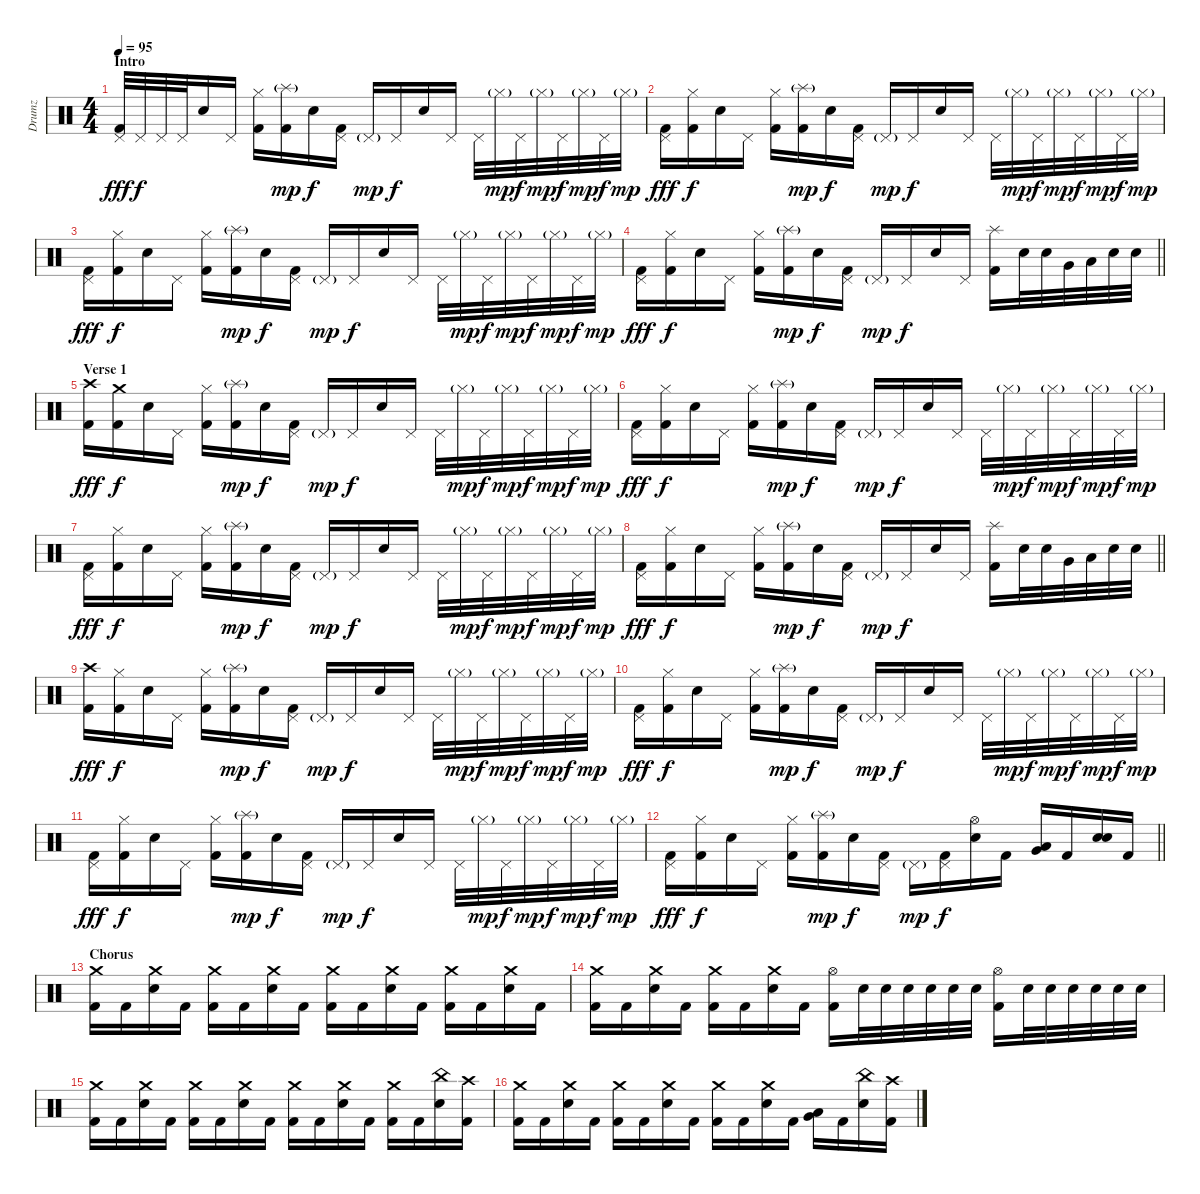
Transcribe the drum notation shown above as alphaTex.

\track ("Drumz" "Drumz") {instrument percussion}
\staff {score}
\articulation defaults
\ts (4 4)
\section ("" "Intro")
\tempo 95
\clef neutral
\ks c
("Pedal Hi-Hat (hit)" "Kick (hit) 2").32{dy fff} "Pedal Hi-Hat (hit)".32{dy f} "Pedal Hi-Hat (hit)".32 "Pedal Hi-Hat (hit)".32 "Electric Snare (hit)".16 "Pedal Hi-Hat (hit)".16 ("Hi-Hat (closed)" "Kick (hit) 2").16 ("Splash (hit)"{g} "Kick (hit) 2").16{dy mp} "Electric Snare (hit)".16{dy f} ("Pedal Hi-Hat (hit)" "Kick (hit) 2").16 "Pedal Hi-Hat (hit)"{g}.16{dy mp} "Pedal Hi-Hat (hit)".16{dy f} "Electric Snare (hit)".16 "Pedal Hi-Hat (hit)".16 "Pedal Hi-Hat (hit)".32 "Hi-Hat (closed)"{g}.32{dy mp} "Pedal Hi-Hat (hit)".32{dy f} "Hi-Hat (closed)"{g}.32{dy mp} "Pedal Hi-Hat (hit)".32{dy f} "Hi-Hat (closed)"{g}.32{dy mp} "Pedal Hi-Hat (hit)".32{dy f} "Hi-Hat (closed)"{g}.32{dy mp} |
("Pedal Hi-Hat (hit)" "Kick (hit) 2").16{dy fff} ("Hi-Hat (closed)" "Kick (hit) 2").16{dy f} "Electric Snare (hit)".16 "Pedal Hi-Hat (hit)".16 ("Hi-Hat (closed)" "Kick (hit) 2").16 ("Splash (hit)"{g} "Kick (hit) 2").16{dy mp} "Electric Snare (hit)".16{dy f} ("Pedal Hi-Hat (hit)" "Kick (hit) 2").16 "Pedal Hi-Hat (hit)"{g}.16{dy mp} "Pedal Hi-Hat (hit)".16{dy f} "Electric Snare (hit)".16 "Pedal Hi-Hat (hit)".16 "Pedal Hi-Hat (hit)".32 "Hi-Hat (closed)"{g}.32{dy mp} "Pedal Hi-Hat (hit)".32{dy f} "Hi-Hat (closed)"{g}.32{dy mp} "Pedal Hi-Hat (hit)".32{dy f} "Hi-Hat (closed)"{g}.32{dy mp} "Pedal Hi-Hat (hit)".32{dy f} "Hi-Hat (closed)"{g}.32{dy mp} |
("Pedal Hi-Hat (hit)" "Kick (hit) 2").16{dy fff} ("Hi-Hat (closed)" "Kick (hit) 2").16{dy f} "Electric Snare (hit)".16 "Pedal Hi-Hat (hit)".16 ("Hi-Hat (closed)" "Kick (hit) 2").16 ("Splash (hit)"{g} "Kick (hit) 2").16{dy mp} "Electric Snare (hit)".16{dy f} ("Pedal Hi-Hat (hit)" "Kick (hit) 2").16 "Pedal Hi-Hat (hit)"{g}.16{dy mp} "Pedal Hi-Hat (hit)".16{dy f} "Electric Snare (hit)".16 "Pedal Hi-Hat (hit)".16 "Pedal Hi-Hat (hit)".32 "Hi-Hat (closed)"{g}.32{dy mp} "Pedal Hi-Hat (hit)".32{dy f} "Hi-Hat (closed)"{g}.32{dy mp} "Pedal Hi-Hat (hit)".32{dy f} "Hi-Hat (closed)"{g}.32{dy mp} "Pedal Hi-Hat (hit)".32{dy f} "Hi-Hat (closed)"{g}.32{dy mp} |
\barLineRight lightlight
("Pedal Hi-Hat (hit)" "Kick (hit) 2").16{dy fff} ("Hi-Hat (closed)" "Kick (hit) 2").16{dy f} "Electric Snare (hit)".16 "Pedal Hi-Hat (hit)".16 ("Hi-Hat (closed)" "Kick (hit) 2").16 ("Splash (hit)"{g} "Kick (hit) 2").16{dy mp} "Electric Snare (hit)".16{dy f} ("Pedal Hi-Hat (hit)" "Kick (hit) 2").16 "Pedal Hi-Hat (hit)"{g}.16{dy mp} "Pedal Hi-Hat (hit)".16{dy f} "Electric Snare (hit)".16 "Pedal Hi-Hat (hit)".16 ("Splash (hit)" "Kick (hit) 2").16 "Electric Snare (hit)".32 "Electric Snare (hit)".32 "Very Low Tom (hit)".32 "Low Floor Tom (hit)".32 "Electric Snare (hit)".32 "Electric Snare (hit)".32 |
\section ("" "Verse 1")
("Crash high (hit)" "Kick (hit) 2").16{dy fff} ("Crash medium (hit)" "Kick (hit) 2").16{dy f} "Electric Snare (hit)".16 "Pedal Hi-Hat (hit)".16 ("Hi-Hat (closed)" "Kick (hit) 2").16 ("Splash (hit)"{g} "Kick (hit) 2").16{dy mp} "Electric Snare (hit)".16{dy f} ("Pedal Hi-Hat (hit)" "Kick (hit) 2").16 "Pedal Hi-Hat (hit)"{g}.16{dy mp} "Pedal Hi-Hat (hit)".16{dy f} "Electric Snare (hit)".16 "Pedal Hi-Hat (hit)".16 "Pedal Hi-Hat (hit)".32 "Hi-Hat (closed)"{g}.32{dy mp} "Pedal Hi-Hat (hit)".32{dy f} "Hi-Hat (closed)"{g}.32{dy mp} "Pedal Hi-Hat (hit)".32{dy f} "Hi-Hat (closed)"{g}.32{dy mp} "Pedal Hi-Hat (hit)".32{dy f} "Hi-Hat (closed)"{g}.32{dy mp} |
("Pedal Hi-Hat (hit)" "Kick (hit) 2").16{dy fff} ("Hi-Hat (closed)" "Kick (hit) 2").16{dy f} "Electric Snare (hit)".16 "Pedal Hi-Hat (hit)".16 ("Hi-Hat (closed)" "Kick (hit) 2").16 ("Splash (hit)"{g} "Kick (hit) 2").16{dy mp} "Electric Snare (hit)".16{dy f} ("Pedal Hi-Hat (hit)" "Kick (hit) 2").16 "Pedal Hi-Hat (hit)"{g}.16{dy mp} "Pedal Hi-Hat (hit)".16{dy f} "Electric Snare (hit)".16 "Pedal Hi-Hat (hit)".16 "Pedal Hi-Hat (hit)".32 "Hi-Hat (closed)"{g}.32{dy mp} "Pedal Hi-Hat (hit)".32{dy f} "Hi-Hat (closed)"{g}.32{dy mp} "Pedal Hi-Hat (hit)".32{dy f} "Hi-Hat (closed)"{g}.32{dy mp} "Pedal Hi-Hat (hit)".32{dy f} "Hi-Hat (closed)"{g}.32{dy mp} |
("Pedal Hi-Hat (hit)" "Kick (hit) 2").16{dy fff} ("Hi-Hat (closed)" "Kick (hit) 2").16{dy f} "Electric Snare (hit)".16 "Pedal Hi-Hat (hit)".16 ("Hi-Hat (closed)" "Kick (hit) 2").16 ("Splash (hit)"{g} "Kick (hit) 2").16{dy mp} "Electric Snare (hit)".16{dy f} ("Pedal Hi-Hat (hit)" "Kick (hit) 2").16 "Pedal Hi-Hat (hit)"{g}.16{dy mp} "Pedal Hi-Hat (hit)".16{dy f} "Electric Snare (hit)".16 "Pedal Hi-Hat (hit)".16 "Pedal Hi-Hat (hit)".32 "Hi-Hat (closed)"{g}.32{dy mp} "Pedal Hi-Hat (hit)".32{dy f} "Hi-Hat (closed)"{g}.32{dy mp} "Pedal Hi-Hat (hit)".32{dy f} "Hi-Hat (closed)"{g}.32{dy mp} "Pedal Hi-Hat (hit)".32{dy f} "Hi-Hat (closed)"{g}.32{dy mp} |
\barLineRight lightlight
("Pedal Hi-Hat (hit)" "Kick (hit) 2").16{dy fff} ("Hi-Hat (closed)" "Kick (hit) 2").16{dy f} "Electric Snare (hit)".16 "Pedal Hi-Hat (hit)".16 ("Hi-Hat (closed)" "Kick (hit) 2").16 ("Splash (hit)"{g} "Kick (hit) 2").16{dy mp} "Electric Snare (hit)".16{dy f} ("Pedal Hi-Hat (hit)" "Kick (hit) 2").16 "Pedal Hi-Hat (hit)"{g}.16{dy mp} "Pedal Hi-Hat (hit)".16{dy f} "Electric Snare (hit)".16 "Pedal Hi-Hat (hit)".16 ("Splash (hit)" "Kick (hit) 2").16 "Electric Snare (hit)".32 "Electric Snare (hit)".32 "Very Low Tom (hit)".32 "Low Floor Tom (hit)".32 "Electric Snare (hit)".32 "Electric Snare (hit)".32 |
("Crash high (hit)" "Kick (hit) 2").16{dy fff} ("Hi-Hat (closed)" "Kick (hit) 2").16{dy f} "Electric Snare (hit)".16 "Pedal Hi-Hat (hit)".16 ("Hi-Hat (closed)" "Kick (hit) 2").16 ("Splash (hit)"{g} "Kick (hit) 2").16{dy mp} "Electric Snare (hit)".16{dy f} ("Pedal Hi-Hat (hit)" "Kick (hit) 2").16 "Pedal Hi-Hat (hit)"{g}.16{dy mp} "Pedal Hi-Hat (hit)".16{dy f} "Electric Snare (hit)".16 "Pedal Hi-Hat (hit)".16 "Pedal Hi-Hat (hit)".32 "Hi-Hat (closed)"{g}.32{dy mp} "Pedal Hi-Hat (hit)".32{dy f} "Hi-Hat (closed)"{g}.32{dy mp} "Pedal Hi-Hat (hit)".32{dy f} "Hi-Hat (closed)"{g}.32{dy mp} "Pedal Hi-Hat (hit)".32{dy f} "Hi-Hat (closed)"{g}.32{dy mp} |
("Pedal Hi-Hat (hit)" "Kick (hit) 2").16{dy fff} ("Hi-Hat (closed)" "Kick (hit) 2").16{dy f} "Electric Snare (hit)".16 "Pedal Hi-Hat (hit)".16 ("Hi-Hat (closed)" "Kick (hit) 2").16 ("Splash (hit)"{g} "Kick (hit) 2").16{dy mp} "Electric Snare (hit)".16{dy f} ("Pedal Hi-Hat (hit)" "Kick (hit) 2").16 "Pedal Hi-Hat (hit)"{g}.16{dy mp} "Pedal Hi-Hat (hit)".16{dy f} "Electric Snare (hit)".16 "Pedal Hi-Hat (hit)".16 "Pedal Hi-Hat (hit)".32 "Hi-Hat (closed)"{g}.32{dy mp} "Pedal Hi-Hat (hit)".32{dy f} "Hi-Hat (closed)"{g}.32{dy mp} "Pedal Hi-Hat (hit)".32{dy f} "Hi-Hat (closed)"{g}.32{dy mp} "Pedal Hi-Hat (hit)".32{dy f} "Hi-Hat (closed)"{g}.32{dy mp} |
("Pedal Hi-Hat (hit)" "Kick (hit) 2").16{dy fff} ("Hi-Hat (closed)" "Kick (hit) 2").16{dy f} "Electric Snare (hit)".16 "Pedal Hi-Hat (hit)".16 ("Hi-Hat (closed)" "Kick (hit) 2").16 ("Splash (hit)"{g} "Kick (hit) 2").16{dy mp} "Electric Snare (hit)".16{dy f} ("Pedal Hi-Hat (hit)" "Kick (hit) 2").16 "Pedal Hi-Hat (hit)"{g}.16{dy mp} "Pedal Hi-Hat (hit)".16{dy f} "Electric Snare (hit)".16 "Pedal Hi-Hat (hit)".16 "Pedal Hi-Hat (hit)".32 "Hi-Hat (closed)"{g}.32{dy mp} "Pedal Hi-Hat (hit)".32{dy f} "Hi-Hat (closed)"{g}.32{dy mp} "Pedal Hi-Hat (hit)".32{dy f} "Hi-Hat (closed)"{g}.32{dy mp} "Pedal Hi-Hat (hit)".32{dy f} "Hi-Hat (closed)"{g}.32{dy mp} |
\barLineRight lightlight
("Pedal Hi-Hat (hit)" "Kick (hit) 2").16{dy fff} ("Hi-Hat (closed)" "Kick (hit) 2").16{dy f} "Electric Snare (hit)".16 "Pedal Hi-Hat (hit)".16 ("Hi-Hat (closed)" "Kick (hit) 2").16 ("Splash (hit)"{g} "Kick (hit) 2").16{dy mp} "Electric Snare (hit)".16{dy f} ("Pedal Hi-Hat (hit)" "Kick (hit) 2").16 "Pedal Hi-Hat (hit)"{g}.16{dy mp} ("Pedal Hi-Hat (hit)" "Kick (hit) 2").16{dy f} ("Hi-Hat (open)" "Electric Snare (hit)").16 "Kick (hit) 2".16 ("Very Low Tom (hit)" "Low Floor Tom (hit)").16 "Kick (hit) 2".16 ("Electric Snare (hit)" "Electric Snare (hit)").16 "Kick (hit) 2".16 |
\section ("" "Chorus")
("Crash medium (hit)" "Kick (hit) 2").16 "Kick (hit) 2".16 ("Crash medium (hit)" "Electric Snare (hit)").16 "Kick (hit) 2".16 ("Crash medium (hit)" "Kick (hit) 2").16 "Kick (hit) 2".16 ("Crash medium (hit)" "Electric Snare (hit)").16 "Kick (hit) 2".16 ("Crash medium (hit)" "Kick (hit) 2").16 "Kick (hit) 2".16 ("Crash medium (hit)" "Electric Snare (hit)").16 "Kick (hit) 2".16 ("Crash medium (hit)" "Kick (hit) 2").16 "Kick (hit) 2".16 ("Crash medium (hit)" "Electric Snare (hit)").16 "Kick (hit) 2".16 |
("Crash medium (hit)" "Kick (hit) 2").16 "Kick (hit) 2".16 ("Crash medium (hit)" "Electric Snare (hit)").16 "Kick (hit) 2".16 ("Crash medium (hit)" "Kick (hit) 2").16 "Kick (hit) 2".16 ("Crash medium (hit)" "Electric Snare (hit)").16 "Kick (hit) 2".16 ("Hi-Hat (open)" "Kick (hit) 2").16 "Electric Snare (hit)".32 "Electric Snare (hit)".32 "Electric Snare (hit)".32 "Electric Snare (hit)".32 "Electric Snare (hit)".32 "Electric Snare (hit)".32 ("Hi-Hat (open)" "Kick (hit) 2").16 "Electric Snare (hit)".32 "Electric Snare (hit)".32 "Electric Snare (hit)".32 "Electric Snare (hit)".32 "Electric Snare (hit)".32 "Electric Snare (hit)".32 |
("Crash medium (hit)" "Kick (hit) 2").16 "Kick (hit) 2".16 ("Crash medium (hit)" "Electric Snare (hit)").16 "Kick (hit) 2".16 ("Crash medium (hit)" "Kick (hit) 2").16 "Kick (hit) 2".16 ("Crash medium (hit)" "Electric Snare (hit)").16 "Kick (hit) 2".16 ("Crash medium (hit)" "Kick (hit) 2").16 "Kick (hit) 2".16 ("Crash medium (hit)" "Electric Snare (hit)").16 "Kick (hit) 2".16 ("Crash medium (hit)" "Kick (hit) 2").16 "Kick (hit) 2".16 ("China (hit)" "Electric Snare (hit)").16 ("Crash high (hit)" "Kick (hit) 2").16 |
("Crash medium (hit)" "Kick (hit) 2").16 "Kick (hit) 2".16 ("Crash medium (hit)" "Electric Snare (hit)").16 "Kick (hit) 2".16 ("Crash medium (hit)" "Kick (hit) 2").16 "Kick (hit) 2".16 ("Crash medium (hit)" "Electric Snare (hit)").16 "Kick (hit) 2".16 ("Crash medium (hit)" "Kick (hit) 2").16 "Kick (hit) 2".16 ("Crash medium (hit)" "Electric Snare (hit)").16 "Kick (hit) 2".16 ("Very Low Tom (hit)" "Low Floor Tom (hit)").16 "Kick (hit) 2".16 ("China (hit)" "Electric Snare (hit)").16 ("Crash high (hit)" "Kick (hit) 2").16
